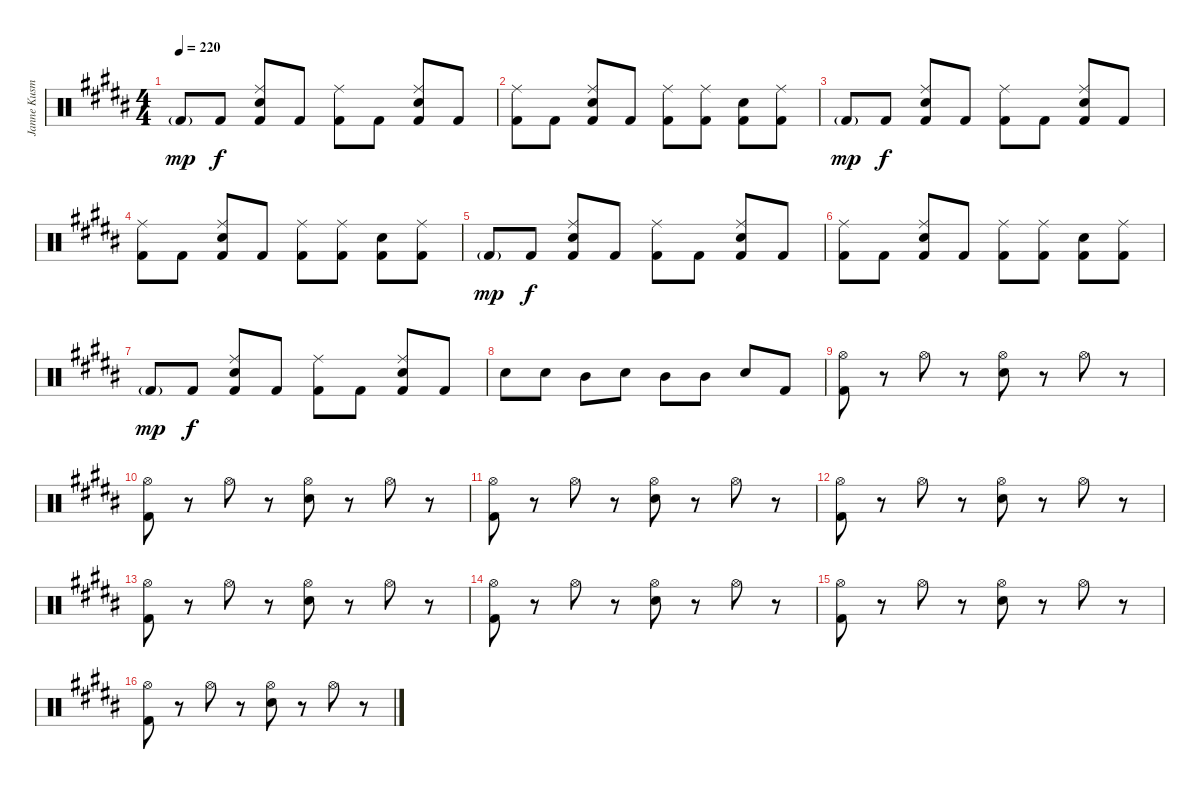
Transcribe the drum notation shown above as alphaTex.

\track ("Janne Kusmin" "Janne Kusm") {instrument percussion}
\staff {score}
\articulation defaults
\ts (4 4)
\tempo 220
\clef neutral
\ks g#minor "Kick (hit) 2"{g}.8{dy mp} "Kick (hit) 2".8{dy f}
("Ride (middle)" "Electric Snare (hit)" "Kick (hit) 2").8 "Kick (hit) 2".8 ("Ride (middle)" "Kick (hit) 2").8 "Kick (hit) 2".8 ("Ride (middle)" "Electric Snare (hit)" "Kick (hit) 2").8 "Kick (hit) 2".8 |
\ks b
("Ride (middle)" "Kick (hit) 2").8 "Kick (hit) 2".8 ("Ride (middle)" "Electric Snare (hit)" "Kick (hit) 2").8 "Kick (hit) 2".8 ("Ride (middle)" "Kick (hit) 2").8 ("Ride (middle)" "Kick (hit) 2").8 ("Electric Snare (hit)" "Kick (hit) 2").8 ("Ride (middle)" "Kick (hit) 2").8 |
\ks g#minor "Kick (hit) 2"{g}.8{dy mp} "Kick (hit) 2".8{dy f}
("Ride (middle)" "Electric Snare (hit)" "Kick (hit) 2").8 "Kick (hit) 2".8 ("Ride (middle)" "Kick (hit) 2").8 "Kick (hit) 2".8 ("Ride (middle)" "Electric Snare (hit)" "Kick (hit) 2").8 "Kick (hit) 2".8 |
\ks b
("Ride (middle)" "Kick (hit) 2").8 "Kick (hit) 2".8 ("Ride (middle)" "Electric Snare (hit)" "Kick (hit) 2").8 "Kick (hit) 2".8 ("Ride (middle)" "Kick (hit) 2").8 ("Ride (middle)" "Kick (hit) 2").8 ("Electric Snare (hit)" "Kick (hit) 2").8 ("Ride (middle)" "Kick (hit) 2").8 |
\ks g#minor "Kick (hit) 2"{g}.8{dy mp} "Kick (hit) 2".8{dy f}
("Ride (middle)" "Electric Snare (hit)" "Kick (hit) 2").8 "Kick (hit) 2".8 ("Ride (middle)" "Kick (hit) 2").8 "Kick (hit) 2".8 ("Ride (middle)" "Electric Snare (hit)" "Kick (hit) 2").8 "Kick (hit) 2".8 |
\ks b
("Ride (middle)" "Kick (hit) 2").8 "Kick (hit) 2".8 ("Ride (middle)" "Electric Snare (hit)" "Kick (hit) 2").8 "Kick (hit) 2".8 ("Ride (middle)" "Kick (hit) 2").8 ("Ride (middle)" "Kick (hit) 2").8 ("Electric Snare (hit)" "Kick (hit) 2").8 ("Ride (middle)" "Kick (hit) 2").8 |
\ks g#minor "Kick (hit) 2"{g}.8{dy mp} "Kick (hit) 2".8{dy f}
("Ride (middle)" "Electric Snare (hit)" "Kick (hit) 2").8 "Kick (hit) 2".8 ("Ride (middle)" "Kick (hit) 2").8 "Kick (hit) 2".8 ("Ride (middle)" "Electric Snare (hit)" "Kick (hit) 2").8 "Kick (hit) 2".8 |
\ks b "Electric Snare (hit)".8 "Electric Snare (hit)".8 "Mid Tom (hit)".8 "Electric Snare (hit)".8 "Mid Tom (hit)".8 "Mid Tom (hit)".8 "Electric Snare (hit)".8 "Kick (hit) 2".8
|
("Kick (hit) 2" "Hi-Hat (open)").8 r.8 "Hi-Hat (open)".8 r.8 ("Electric Snare (hit)" "Hi-Hat (open)").8 r.8 "Hi-Hat (open)".8 r.8 |
("Kick (hit) 2" "Hi-Hat (open)").8 r.8 "Hi-Hat (open)".8 r.8 ("Electric Snare (hit)" "Hi-Hat (open)").8 r.8 "Hi-Hat (open)".8 r.8 |
("Kick (hit) 2" "Hi-Hat (open)").8 r.8 "Hi-Hat (open)".8 r.8 ("Electric Snare (hit)" "Hi-Hat (open)").8 r.8 "Hi-Hat (open)".8 r.8 |
("Kick (hit) 2" "Hi-Hat (open)").8 r.8 "Hi-Hat (open)".8 r.8 ("Electric Snare (hit)" "Hi-Hat (open)").8 r.8 "Hi-Hat (open)".8 r.8 |
("Kick (hit) 2" "Hi-Hat (open)").8 r.8 "Hi-Hat (open)".8 r.8 ("Electric Snare (hit)" "Hi-Hat (open)").8 r.8 "Hi-Hat (open)".8 r.8 |
("Kick (hit) 2" "Hi-Hat (open)").8 r.8 "Hi-Hat (open)".8 r.8 ("Electric Snare (hit)" "Hi-Hat (open)").8 r.8 "Hi-Hat (open)".8 r.8 |
("Kick (hit) 2" "Hi-Hat (open)").8 r.8 "Hi-Hat (open)".8 r.8 ("Electric Snare (hit)" "Hi-Hat (open)").8 r.8 "Hi-Hat (open)".8 r.8 |
("Kick (hit) 2" "Hi-Hat (open)").8 r.8 "Hi-Hat (open)".8 r.8 ("Electric Snare (hit)" "Hi-Hat (open)").8 r.8 "Hi-Hat (open)".8 r.8
